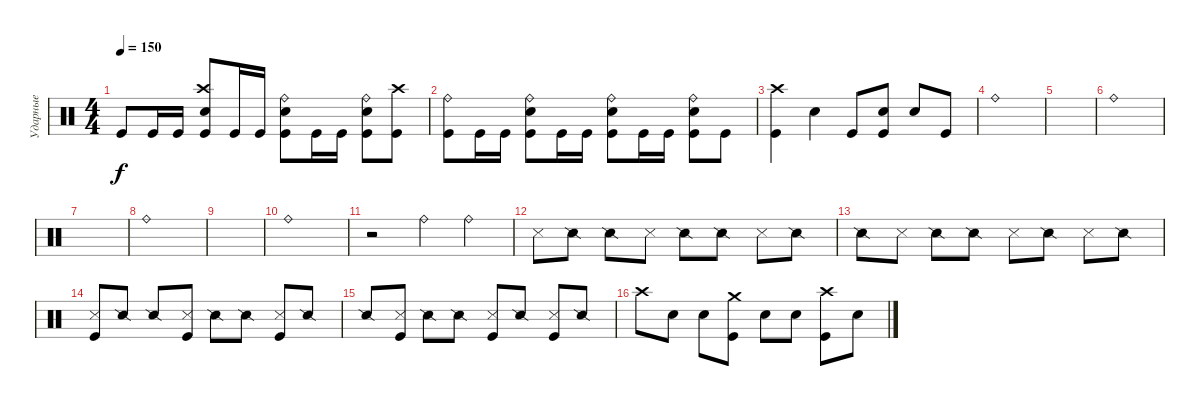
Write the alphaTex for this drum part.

\track ("Ударные" "Ударные") {instrument percussion}
\staff {score}
\articulation defaults
\ts (4 4)
\tempo 150
\clef neutral
\ks c "Kick (hit)".8{dy f} "Kick (hit)".16 "Kick (hit)".16
("Crash high (hit)" "Electric Snare (hit)" "Kick (hit)").8 "Kick (hit)".16 "Kick (hit)".16 ("Ride (bell)" "Electric Snare (hit)" "Kick (hit)").8 "Kick (hit)".16 "Kick (hit)".16 ("Ride (bell)" "Electric Snare (hit)" "Kick (hit)").8 ("Crash high (hit)" "Kick (hit)").8 |
("Ride (bell)" "Kick (hit)").8 "Kick (hit)".16 "Kick (hit)".16 ("Ride (bell)" "Electric Snare (hit)" "Kick (hit)").8 "Kick (hit)".16 "Kick (hit)".16 ("Ride (bell)" "Electric Snare (hit)" "Kick (hit)").8 "Kick (hit)".16 "Kick (hit)".16 ("Ride (bell)" "Electric Snare (hit)" "Kick (hit)").8 "Kick (hit)".8 |
("Crash high (hit)" "Kick (hit)").4 "Electric Snare (hit)".4 "Kick (hit)".8 ("Electric Snare (hit)" "Kick (hit)").8 "Electric Snare (hit)".8 "Kick (hit)".8 |
"Ride (bell)".1 |
|
"Ride (bell)".1 |
|
"Ride (bell)".1 |
|
"Ride (bell)".1 |
r.2 "Ride (bell)".4 "Ride (bell)".4 |
"Snare (side stick) 3".8 "Snare (side stick) 2".8 "Snare (side stick) 2".8 "Snare (side stick) 3".8 "Snare (side stick) 2".8 "Snare (side stick) 2".8 "Snare (side stick) 3".8 "Snare (side stick) 2".8 |
"Snare (side stick) 2".8 "Snare (side stick) 3".8 "Snare (side stick) 2".8 "Snare (side stick) 2".8 "Snare (side stick) 3".8 "Snare (side stick) 2".8 "Snare (side stick) 3".8 "Snare (side stick) 2".8 |
("Snare (side stick) 3" "Kick (hit)").8 "Snare (side stick) 2".8 "Snare (side stick) 2".8 ("Snare (side stick) 3" "Kick (hit)").8 "Snare (side stick) 2".8 "Snare (side stick) 2".8 ("Snare (side stick) 3" "Kick (hit)").8 "Snare (side stick) 2".8 |
"Snare (side stick) 2".8 ("Snare (side stick) 3" "Kick (hit)").8 "Snare (side stick) 2".8 "Snare (side stick) 2".8 ("Snare (side stick) 3" "Kick (hit)").8 "Snare (side stick) 2".8 ("Snare (side stick) 3" "Kick (hit)").8 "Snare (side stick) 2".8 |
"Crash high (hit)".8 "Electric Snare (hit)".8 "Electric Snare (hit)".8 ("Kick (hit)" "Crash medium (hit)").8 "Electric Snare (hit)".8 "Electric Snare (hit)".8 ("Kick (hit)" "Crash high (hit)").8 "Electric Snare (hit)".8
